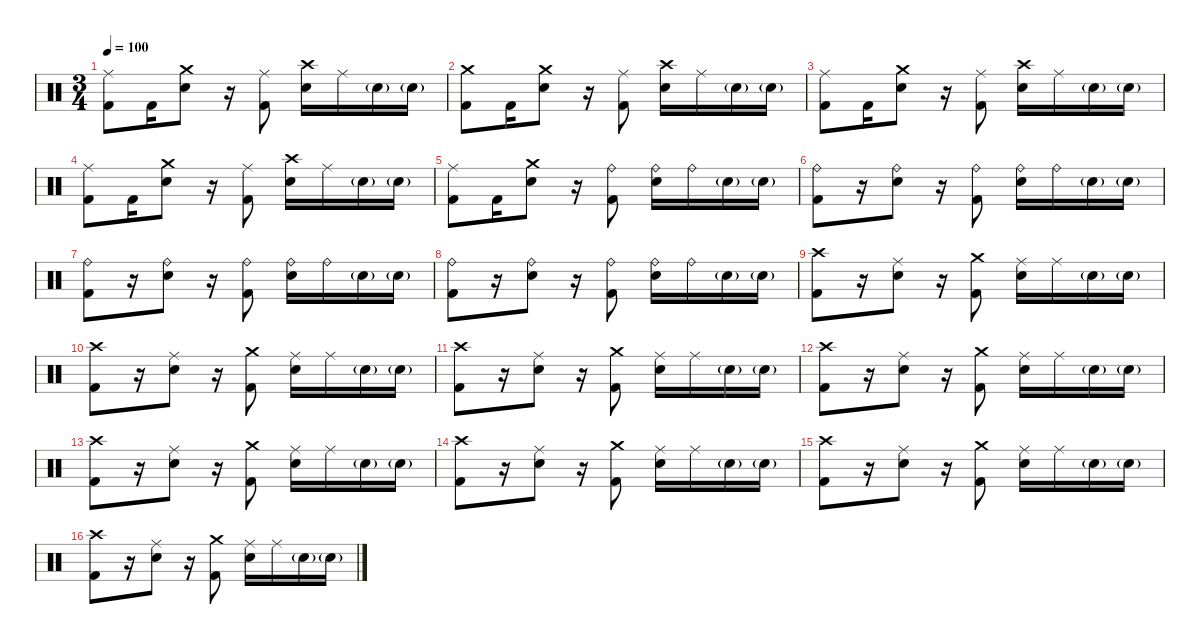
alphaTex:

\defaultSystemsLayout 4
\hideDynamics
\bracketExtendMode nobrackets
\singleTrackTrackNamePolicy hidden
\multiTrackTrackNamePolicy hidden
\firstSystemTrackNameMode fullname
\firstSystemTrackNameOrientation horizontal
\otherSystemsTrackNameOrientation horizontal
\track ("Bill Ward - Drums" "drm.") {instrument percussion}
\staff {score}
\articulation defaults
\ts (3 4)
\section ("" "")
\tempo 100
\clef neutral
\ks c
("Ride (middle)" "Kick (hit) 2").8{dy f} "Kick (hit) 2".16 ("Crash medium (hit)" "Snare (hit) 2").8 r.16 ("Ride (middle)" "Kick (hit) 2").8 ("Crash high (hit)" "Snare (hit) 2").16 "Ride (middle)".16 "Snare (hit) 2"{g}.16{dy mf} "Snare (hit) 2"{g}.16 |
("Crash medium (hit)" "Kick (hit) 2").8{dy f} "Kick (hit) 2".16 ("Crash medium (hit)" "Snare (hit) 2").8 r.16 ("Ride (middle)" "Kick (hit) 2").8 ("Crash high (hit)" "Snare (hit) 2").16 "Ride (middle)".16 "Snare (hit) 2"{g}.16{dy mf} "Snare (hit) 2"{g}.16 |
("Ride (middle)" "Kick (hit) 2").8{dy f} "Kick (hit) 2".16 ("Crash medium (hit)" "Snare (hit) 2").8 r.16 ("Ride (middle)" "Kick (hit) 2").8 ("Crash high (hit)" "Snare (hit) 2").16 "Ride (middle)".16 "Snare (hit) 2"{g}.16{dy mf} "Snare (hit) 2"{g}.16 |
("Ride (middle)" "Kick (hit) 2").8{dy f} "Kick (hit) 2".16 ("Crash medium (hit)" "Snare (hit) 2").8 r.16 ("Ride (middle)" "Kick (hit) 2").8 ("Crash high (hit)" "Snare (hit) 2").16 "Ride (middle)".16 "Snare (hit) 2"{g}.16{dy mf} "Snare (hit) 2"{g}.16 |
("Ride (middle)" "Kick (hit) 2").8{dy f} "Kick (hit) 2".16 ("Crash medium (hit)" "Snare (hit) 2").8 r.16 ("Ride (bell)" "Kick (hit) 2").8 ("Ride (bell)" "Snare (hit) 2").16 "Ride (bell)".16 "Snare (hit) 2"{g}.16{dy mf} "Snare (hit) 2"{g}.16 |
("Ride (bell)" "Kick (hit) 2").8{dy f} r.16 ("Ride (bell)" "Snare (hit) 2").8 r.16 ("Ride (bell)" "Kick (hit) 2").8 ("Ride (bell)" "Snare (hit) 2").16 "Ride (bell)".16 "Snare (hit) 2"{g}.16{dy mf} "Snare (hit) 2"{g}.16 |
("Ride (bell)" "Kick (hit) 2").8{dy f} r.16 ("Ride (bell)" "Snare (hit) 2").8 r.16 ("Ride (bell)" "Kick (hit) 2").8 ("Ride (bell)" "Snare (hit) 2").16 "Ride (bell)".16 "Snare (hit) 2"{g}.16{dy mf} "Snare (hit) 2"{g}.16 |
("Ride (bell)" "Kick (hit) 2").8{dy f} r.16 ("Ride (bell)" "Snare (hit) 2").8 r.16 ("Ride (bell)" "Kick (hit) 2").8 ("Ride (bell)" "Snare (hit) 2").16 "Ride (bell)".16 "Snare (hit) 2"{g}.16{dy mf} "Snare (hit) 2"{g}.16 |
("Crash high (hit)" "Kick (hit) 2").8{dy f} r.16 ("Ride (middle)" "Snare (hit) 2").8 r.16 ("Crash medium (hit)" "Kick (hit) 2").8 ("Ride (middle)" "Snare (hit) 2").16 "Ride (middle)".16 "Snare (hit) 2"{g}.16{dy mf} "Snare (hit) 2"{g}.16 |
("Crash high (hit)" "Kick (hit) 2").8{dy f} r.16 ("Ride (middle)" "Snare (hit) 2").8 r.16 ("Crash medium (hit)" "Kick (hit) 2").8 ("Ride (middle)" "Snare (hit) 2").16 "Ride (middle)".16 "Snare (hit) 2"{g}.16{dy mf} "Snare (hit) 2"{g}.16 |
("Crash high (hit)" "Kick (hit) 2").8{dy f} r.16 ("Ride (middle)" "Snare (hit) 2").8 r.16 ("Crash medium (hit)" "Kick (hit) 2").8 ("Ride (middle)" "Snare (hit) 2").16 "Ride (middle)".16 "Snare (hit) 2"{g}.16{dy mf} "Snare (hit) 2"{g}.16 |
("Crash high (hit)" "Kick (hit) 2").8{dy f} r.16 ("Ride (middle)" "Snare (hit) 2").8 r.16 ("Crash medium (hit)" "Kick (hit) 2").8 ("Ride (middle)" "Snare (hit) 2").16 "Ride (middle)".16 "Snare (hit) 2"{g}.16{dy mf} "Snare (hit) 2"{g}.16 |
("Crash high (hit)" "Kick (hit) 2").8{dy f} r.16 ("Ride (middle)" "Snare (hit) 2").8 r.16 ("Crash medium (hit)" "Kick (hit) 2").8 ("Ride (middle)" "Snare (hit) 2").16 "Ride (middle)".16 "Snare (hit) 2"{g}.16{dy mf} "Snare (hit) 2"{g}.16 |
("Crash high (hit)" "Kick (hit) 2").8{dy f} r.16 ("Ride (middle)" "Snare (hit) 2").8 r.16 ("Crash medium (hit)" "Kick (hit) 2").8 ("Ride (middle)" "Snare (hit) 2").16 "Ride (middle)".16 "Snare (hit) 2"{g}.16{dy mf} "Snare (hit) 2"{g}.16 |
("Crash high (hit)" "Kick (hit) 2").8{dy f} r.16 ("Ride (middle)" "Snare (hit) 2").8 r.16 ("Crash medium (hit)" "Kick (hit) 2").8 ("Ride (middle)" "Snare (hit) 2").16 "Ride (middle)".16 "Snare (hit) 2"{g}.16{dy mf} "Snare (hit) 2"{g}.16 |
("Crash high (hit)" "Kick (hit) 2").8{dy f} r.16 ("Ride (middle)" "Snare (hit) 2").8 r.16 ("Crash medium (hit)" "Kick (hit) 2").8 ("Ride (middle)" "Snare (hit) 2").16 "Ride (middle)".16 "Snare (hit) 2"{g}.16{dy mf} "Snare (hit) 2"{g}.16
